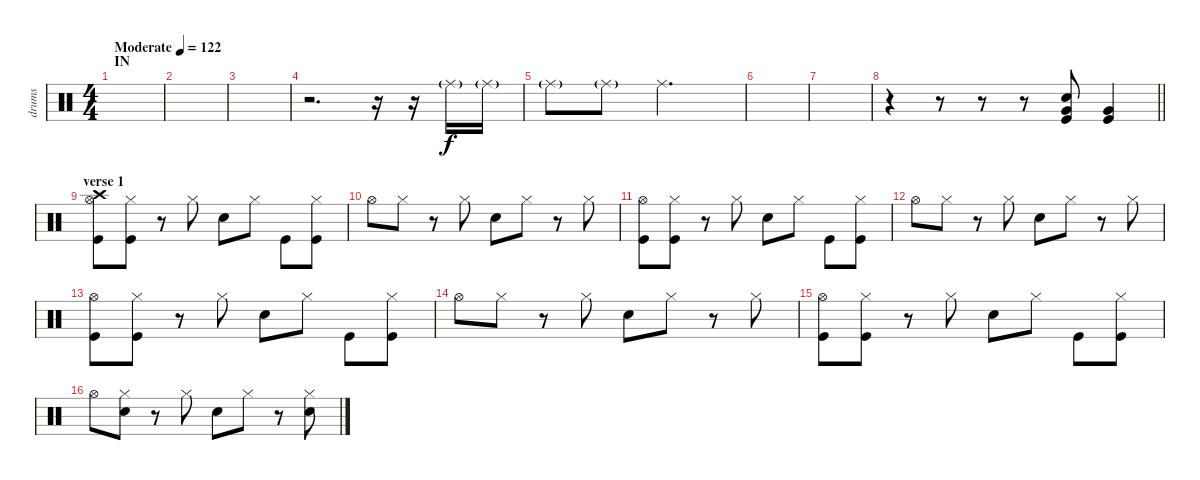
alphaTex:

\track ("drums" "drums") {instrument percussion}
\staff {score}
\articulation defaults
\ts (4 4)
\section ("" "IN")
\tempo (122 "Moderate")
\clef neutral
\ks c
|
|
|
r.2{d} r.16 r.16 "Ride (middle)"{g}.16 "Ride (middle)"{g}.16 |
"Ride (middle)"{g}.8 "Ride (middle)"{g}.8 "Ride (middle)".2{d dy f} |
|
|
\barLineRight lightlight
r.4 r.8 r.8 r.8 ("Kick (hit)" "Very Low Tom (hit)" "Electric Snare (hit)").8 ("Kick (hit)" "Very Low Tom (hit)").4 |
\section ("" "verse 1")
("Crash high (hit)" "Hi-Hat (open)" "Kick (hit)").8 ("Hi-Hat (closed)" "Kick (hit)").8 r.8 "Hi-Hat (closed)".8 "Electric Snare (hit)".8 "Hi-Hat (closed)".8 "Kick (hit)".8 ("Hi-Hat (closed)" "Kick (hit)").8 |
"Hi-Hat (open)".8 "Hi-Hat (closed)".8 r.8 "Hi-Hat (closed)".8 "Electric Snare (hit)".8 "Hi-Hat (closed)".8 r.8 "Hi-Hat (closed)".8 |
("Hi-Hat (open)" "Kick (hit)").8 ("Hi-Hat (closed)" "Kick (hit)").8 r.8 "Hi-Hat (closed)".8 "Electric Snare (hit)".8 "Hi-Hat (closed)".8 "Kick (hit)".8 ("Hi-Hat (closed)" "Kick (hit)").8 |
"Hi-Hat (open)".8 "Hi-Hat (closed)".8 r.8 "Hi-Hat (closed)".8 "Electric Snare (hit)".8 "Hi-Hat (closed)".8 r.8 "Hi-Hat (closed)".8 |
("Hi-Hat (open)" "Kick (hit)").8 ("Hi-Hat (closed)" "Kick (hit)").8 r.8 "Hi-Hat (closed)".8 "Electric Snare (hit)".8 "Hi-Hat (closed)".8 "Kick (hit)".8 ("Hi-Hat (closed)" "Kick (hit)").8 |
"Hi-Hat (open)".8 "Hi-Hat (closed)".8 r.8 "Hi-Hat (closed)".8 "Electric Snare (hit)".8 "Hi-Hat (closed)".8 r.8 "Hi-Hat (closed)".8 |
("Hi-Hat (open)" "Kick (hit)").8 ("Hi-Hat (closed)" "Kick (hit)").8 r.8 "Hi-Hat (closed)".8 "Electric Snare (hit)".8 "Hi-Hat (closed)".8 "Kick (hit)".8 ("Hi-Hat (closed)" "Kick (hit)").8 |
"Hi-Hat (open)".8 ("Hi-Hat (closed)" "Electric Snare (hit)").8 r.8 "Hi-Hat (closed)".8 "Electric Snare (hit)".8 "Hi-Hat (closed)".8 r.8 ("Hi-Hat (closed)" "Electric Snare (hit)").8
